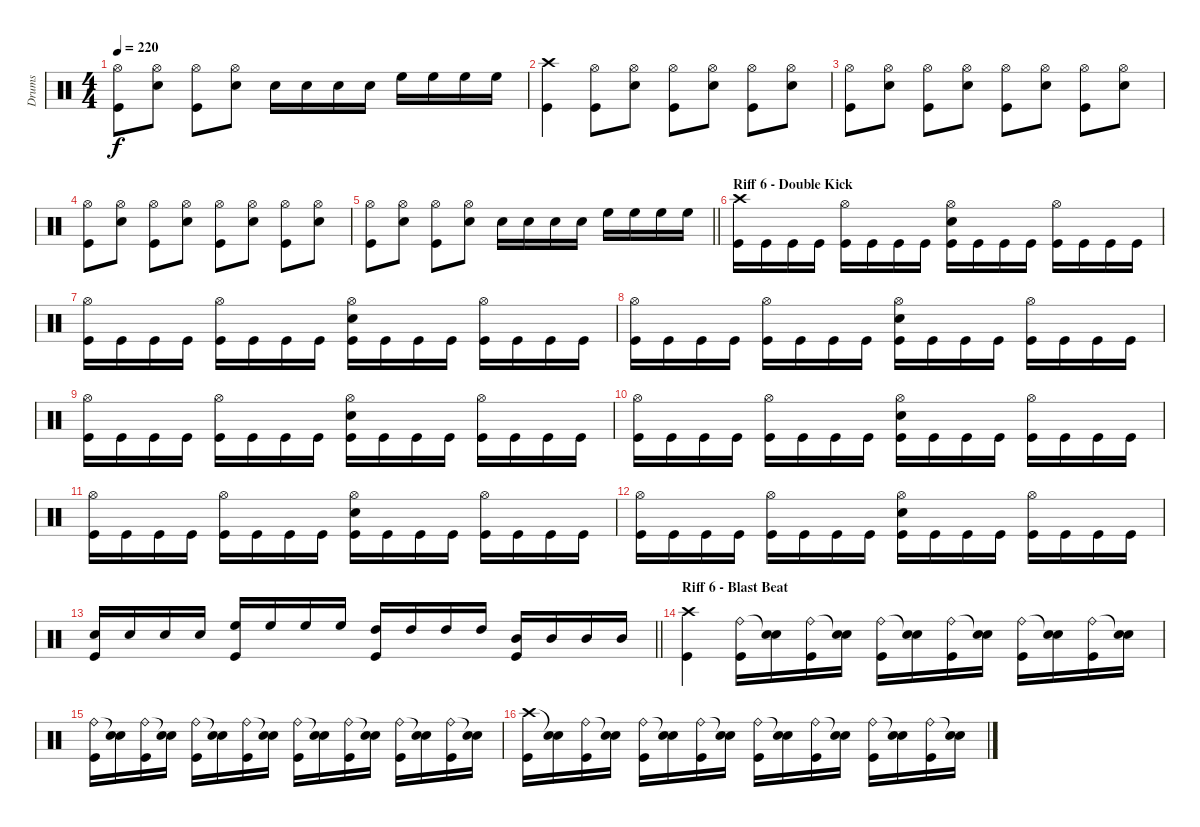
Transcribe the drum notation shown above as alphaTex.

\track ("Drums" "Drums") {instrument percussion}
\staff {score}
\articulation defaults
\ts (4 4)
\tempo 220
\clef neutral
\ks c
("Hi-Hat (open)" "Kick (hit)").8{dy f} ("Hi-Hat (open)" "Electric Snare (hit)").8 ("Hi-Hat (open)" "Kick (hit)").8 ("Hi-Hat (open)" "Electric Snare (hit)").8 "Electric Snare (hit)".16 "Electric Snare (hit)".16 "Electric Snare (hit)".16 "Electric Snare (hit)".16 "High Floor Tom (hit)".16 "High Floor Tom (hit)".16 "High Floor Tom (hit)".16 "High Floor Tom (hit)".16 |
("Crash high (hit)" "Kick (hit)").4 ("Hi-Hat (open)" "Kick (hit)").8 ("Hi-Hat (open)" "Electric Snare (hit)").8 ("Hi-Hat (open)" "Kick (hit)").8 ("Hi-Hat (open)" "Electric Snare (hit)").8 ("Hi-Hat (open)" "Kick (hit)").8 ("Hi-Hat (open)" "Electric Snare (hit)").8 |
("Hi-Hat (open)" "Kick (hit)").8 ("Hi-Hat (open)" "Electric Snare (hit)").8 ("Hi-Hat (open)" "Kick (hit)").8 ("Hi-Hat (open)" "Electric Snare (hit)").8 ("Hi-Hat (open)" "Kick (hit)").8 ("Hi-Hat (open)" "Electric Snare (hit)").8 ("Hi-Hat (open)" "Kick (hit)").8 ("Hi-Hat (open)" "Electric Snare (hit)").8 |
("Hi-Hat (open)" "Kick (hit)").8 ("Hi-Hat (open)" "Electric Snare (hit)").8 ("Hi-Hat (open)" "Kick (hit)").8 ("Hi-Hat (open)" "Electric Snare (hit)").8 ("Hi-Hat (open)" "Kick (hit)").8 ("Hi-Hat (open)" "Electric Snare (hit)").8 ("Hi-Hat (open)" "Kick (hit)").8 ("Hi-Hat (open)" "Electric Snare (hit)").8 |
\barLineRight lightlight
("Hi-Hat (open)" "Kick (hit)").8 ("Hi-Hat (open)" "Electric Snare (hit)").8 ("Hi-Hat (open)" "Kick (hit)").8 ("Hi-Hat (open)" "Electric Snare (hit)").8 "Electric Snare (hit)".16 "Electric Snare (hit)".16 "Electric Snare (hit)".16 "Electric Snare (hit)".16 "High Floor Tom (hit)".16 "High Floor Tom (hit)".16 "High Floor Tom (hit)".16 "High Floor Tom (hit)".16 |
\section ("" "Riff 6 - Double Kick ")
("Crash high (hit)" "Kick (hit)").16 "Kick (hit)".16 "Kick (hit)".16 "Kick (hit)".16 ("Hi-Hat (open)" "Kick (hit)").16 "Kick (hit)".16 "Kick (hit)".16 "Kick (hit)".16 ("Hi-Hat (open)" "Electric Snare (hit)" "Kick (hit)").16 "Kick (hit)".16 "Kick (hit)".16 "Kick (hit)".16 ("Hi-Hat (open)" "Kick (hit)").16 "Kick (hit)".16 "Kick (hit)".16 "Kick (hit)".16 |
("Hi-Hat (open)" "Kick (hit)").16 "Kick (hit)".16 "Kick (hit)".16 "Kick (hit)".16 ("Hi-Hat (open)" "Kick (hit)").16 "Kick (hit)".16 "Kick (hit)".16 "Kick (hit)".16 ("Hi-Hat (open)" "Electric Snare (hit)" "Kick (hit)").16 "Kick (hit)".16 "Kick (hit)".16 "Kick (hit)".16 ("Hi-Hat (open)" "Kick (hit)").16 "Kick (hit)".16 "Kick (hit)".16 "Kick (hit)".16 |
("Hi-Hat (open)" "Kick (hit)").16 "Kick (hit)".16 "Kick (hit)".16 "Kick (hit)".16 ("Hi-Hat (open)" "Kick (hit)").16 "Kick (hit)".16 "Kick (hit)".16 "Kick (hit)".16 ("Hi-Hat (open)" "Electric Snare (hit)" "Kick (hit)").16 "Kick (hit)".16 "Kick (hit)".16 "Kick (hit)".16 ("Hi-Hat (open)" "Kick (hit)").16 "Kick (hit)".16 "Kick (hit)".16 "Kick (hit)".16 |
("Hi-Hat (open)" "Kick (hit)").16 "Kick (hit)".16 "Kick (hit)".16 "Kick (hit)".16 ("Hi-Hat (open)" "Kick (hit)").16 "Kick (hit)".16 "Kick (hit)".16 "Kick (hit)".16 ("Hi-Hat (open)" "Electric Snare (hit)" "Kick (hit)").16 "Kick (hit)".16 "Kick (hit)".16 "Kick (hit)".16 ("Hi-Hat (open)" "Kick (hit)").16 "Kick (hit)".16 "Kick (hit)".16 "Kick (hit)".16 |
("Hi-Hat (open)" "Kick (hit)").16 "Kick (hit)".16 "Kick (hit)".16 "Kick (hit)".16 ("Hi-Hat (open)" "Kick (hit)").16 "Kick (hit)".16 "Kick (hit)".16 "Kick (hit)".16 ("Hi-Hat (open)" "Electric Snare (hit)" "Kick (hit)").16 "Kick (hit)".16 "Kick (hit)".16 "Kick (hit)".16 ("Hi-Hat (open)" "Kick (hit)").16 "Kick (hit)".16 "Kick (hit)".16 "Kick (hit)".16 |
("Hi-Hat (open)" "Kick (hit)").16 "Kick (hit)".16 "Kick (hit)".16 "Kick (hit)".16 ("Hi-Hat (open)" "Kick (hit)").16 "Kick (hit)".16 "Kick (hit)".16 "Kick (hit)".16 ("Hi-Hat (open)" "Electric Snare (hit)" "Kick (hit)").16 "Kick (hit)".16 "Kick (hit)".16 "Kick (hit)".16 ("Hi-Hat (open)" "Kick (hit)").16 "Kick (hit)".16 "Kick (hit)".16 "Kick (hit)".16 |
("Hi-Hat (open)" "Kick (hit)").16 "Kick (hit)".16 "Kick (hit)".16 "Kick (hit)".16 ("Hi-Hat (open)" "Kick (hit)").16 "Kick (hit)".16 "Kick (hit)".16 "Kick (hit)".16 ("Hi-Hat (open)" "Electric Snare (hit)" "Kick (hit)").16 "Kick (hit)".16 "Kick (hit)".16 "Kick (hit)".16 ("Hi-Hat (open)" "Kick (hit)").16 "Kick (hit)".16 "Kick (hit)".16 "Kick (hit)".16 |
\barLineRight lightlight
("Electric Snare (hit)" "Kick (hit)").16 "Electric Snare (hit)".16 "Electric Snare (hit)".16 "Electric Snare (hit)".16 ("High Floor Tom (hit)" "Kick (hit)").16 "High Floor Tom (hit)".16 "High Floor Tom (hit)".16 "High Floor Tom (hit)".16 ("High Tom (hit)" "Kick (hit)").16 "High Tom (hit)".16 "High Tom (hit)".16 "High Tom (hit)".16 ("Mid Tom (hit)" "Kick (hit)").16 "Mid Tom (hit)".16 "Mid Tom (hit)".16 "Mid Tom (hit)".16 |
\section ("" "Riff 6 - Blast Beat")
("Crash high (hit)" "Kick (hit)").4 ("Ride (bell)" "Kick (hit)").16 ("Snare (hit)"{t} "Electric Snare (hit)").16 ("Ride (bell)" "Kick (hit)").16 ("Snare (hit)"{t} "Electric Snare (hit)").16 ("Ride (bell)" "Kick (hit)").16 ("Snare (hit)"{t} "Electric Snare (hit)").16 ("Ride (bell)" "Kick (hit)").16 ("Snare (hit)"{t} "Electric Snare (hit)").16 ("Ride (bell)" "Kick (hit)").16 ("Snare (hit)"{t} "Electric Snare (hit)").16 ("Ride (bell)" "Kick (hit)").16 ("Snare (hit)"{t} "Electric Snare (hit)").16 |
("Ride (bell)" "Kick (hit)").16 ("Snare (hit)"{t} "Electric Snare (hit)").16 ("Ride (bell)" "Kick (hit)").16 ("Snare (hit)"{t} "Electric Snare (hit)").16 ("Ride (bell)" "Kick (hit)").16 ("Snare (hit)"{t} "Electric Snare (hit)").16 ("Ride (bell)" "Kick (hit)").16 ("Snare (hit)"{t} "Electric Snare (hit)").16 ("Ride (bell)" "Kick (hit)").16 ("Snare (hit)"{t} "Electric Snare (hit)").16 ("Ride (bell)" "Kick (hit)").16 ("Snare (hit)"{t} "Electric Snare (hit)").16 ("Ride (bell)" "Kick (hit)").16 ("Snare (hit)"{t} "Electric Snare (hit)").16 ("Ride (bell)" "Kick (hit)").16 ("Snare (hit)"{t} "Electric Snare (hit)").16 |
("Crash high (hit)" "Kick (hit)").16 ("Snare (hit)"{t} "Electric Snare (hit)").16 ("Ride (bell)" "Kick (hit)").16 ("Snare (hit)"{t} "Electric Snare (hit)").16 ("Ride (bell)" "Kick (hit)").16 ("Snare (hit)"{t} "Electric Snare (hit)").16 ("Ride (bell)" "Kick (hit)").16 ("Snare (hit)"{t} "Electric Snare (hit)").16 ("Ride (bell)" "Kick (hit)").16 ("Snare (hit)"{t} "Electric Snare (hit)").16 ("Ride (bell)" "Kick (hit)").16 ("Snare (hit)"{t} "Electric Snare (hit)").16 ("Ride (bell)" "Kick (hit)").16 ("Snare (hit)"{t} "Electric Snare (hit)").16 ("Ride (bell)" "Kick (hit)").16 ("Snare (hit)"{t} "Electric Snare (hit)").16
